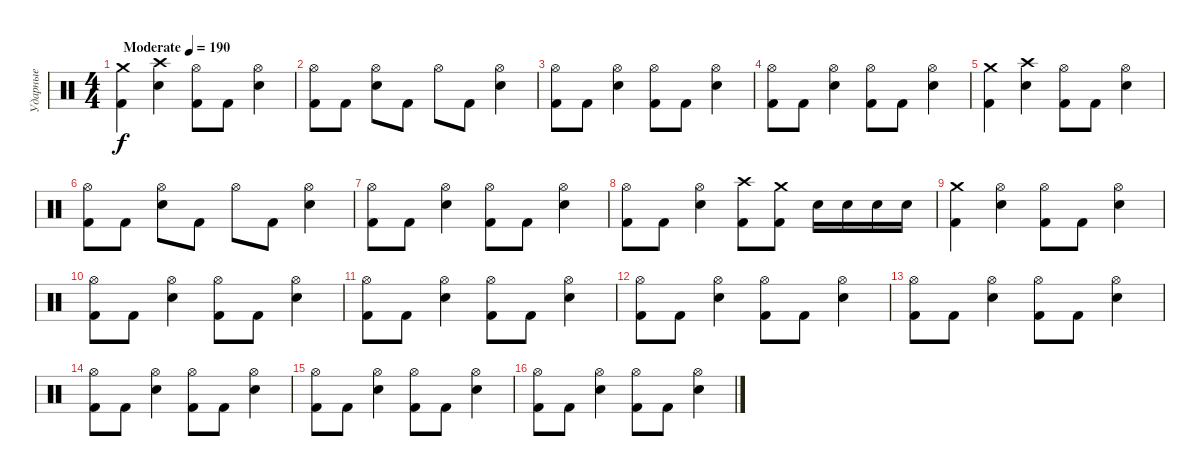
\track ("Ударные" "Ударные") {instrument percussion}
\staff {score}
\articulation defaults
\ts (4 4)
\tempo (190 "Moderate")
\clef neutral
\ks c
("Crash medium (hit)" "Kick (hit) 2").4{dy f} ("Crash high (hit)" "Snare (hit) 2").4 ("Hi-Hat (open)" "Kick (hit) 2").8 "Kick (hit) 2".8 ("Hi-Hat (open)" "Snare (hit) 2").4 |
("Hi-Hat (open)" "Kick (hit) 2").8 "Kick (hit) 2".8 ("Hi-Hat (open)" "Snare (hit) 2").8 "Kick (hit) 2".8 "Hi-Hat (open)".8 "Kick (hit) 2".8 ("Hi-Hat (open)" "Snare (hit) 2").4 |
("Hi-Hat (open)" "Kick (hit) 2").8 "Kick (hit) 2".8 ("Hi-Hat (open)" "Snare (hit) 2").4 ("Hi-Hat (open)" "Kick (hit) 2").8 "Kick (hit) 2".8 ("Hi-Hat (open)" "Snare (hit) 2").4 |
("Hi-Hat (open)" "Kick (hit) 2").8 "Kick (hit) 2".8 ("Hi-Hat (open)" "Snare (hit) 2").4 ("Hi-Hat (open)" "Kick (hit) 2").8 "Kick (hit) 2".8 ("Hi-Hat (open)" "Snare (hit) 2").4 |
("Crash medium (hit)" "Kick (hit) 2").4 ("Crash high (hit)" "Snare (hit) 2").4 ("Hi-Hat (open)" "Kick (hit) 2").8 "Kick (hit) 2".8 ("Hi-Hat (open)" "Snare (hit) 2").4 |
("Hi-Hat (open)" "Kick (hit) 2").8 "Kick (hit) 2".8 ("Hi-Hat (open)" "Snare (hit) 2").8 "Kick (hit) 2".8 "Hi-Hat (open)".8 "Kick (hit) 2".8 ("Hi-Hat (open)" "Snare (hit) 2").4 |
("Hi-Hat (open)" "Kick (hit) 2").8 "Kick (hit) 2".8 ("Hi-Hat (open)" "Snare (hit) 2").4 ("Hi-Hat (open)" "Kick (hit) 2").8 "Kick (hit) 2".8 ("Hi-Hat (open)" "Snare (hit) 2").4 |
("Hi-Hat (open)" "Kick (hit) 2").8 "Kick (hit) 2".8 ("Hi-Hat (open)" "Snare (hit) 2").4 ("Crash high (hit)" "Kick (hit) 2").8 ("Crash medium (hit)" "Kick (hit) 2").8 "Snare (hit) 2".16 "Snare (hit) 2".16 "Snare (hit) 2".16 "Snare (hit) 2".16 |
("Crash medium (hit)" "Kick (hit) 2").4 ("Hi-Hat (open)" "Snare (hit) 2").4 ("Hi-Hat (open)" "Kick (hit) 2").8 "Kick (hit) 2".8 ("Hi-Hat (open)" "Snare (hit) 2").4 |
("Hi-Hat (open)" "Kick (hit) 2").8 "Kick (hit) 2".8 ("Hi-Hat (open)" "Snare (hit) 2").4 ("Hi-Hat (open)" "Kick (hit) 2").8 "Kick (hit) 2".8 ("Hi-Hat (open)" "Snare (hit) 2").4 |
("Hi-Hat (open)" "Kick (hit) 2").8 "Kick (hit) 2".8 ("Hi-Hat (open)" "Snare (hit) 2").4 ("Hi-Hat (open)" "Kick (hit) 2").8 "Kick (hit) 2".8 ("Hi-Hat (open)" "Snare (hit) 2").4 |
("Hi-Hat (open)" "Kick (hit) 2").8 "Kick (hit) 2".8 ("Hi-Hat (open)" "Snare (hit) 2").4 ("Hi-Hat (open)" "Kick (hit) 2").8 "Kick (hit) 2".8 ("Hi-Hat (open)" "Snare (hit) 2").4 |
("Hi-Hat (open)" "Kick (hit) 2").8 "Kick (hit) 2".8 ("Hi-Hat (open)" "Snare (hit) 2").4 ("Hi-Hat (open)" "Kick (hit) 2").8 "Kick (hit) 2".8 ("Hi-Hat (open)" "Snare (hit) 2").4 |
("Hi-Hat (open)" "Kick (hit) 2").8 "Kick (hit) 2".8 ("Hi-Hat (open)" "Snare (hit) 2").4 ("Hi-Hat (open)" "Kick (hit) 2").8 "Kick (hit) 2".8 ("Hi-Hat (open)" "Snare (hit) 2").4 |
("Hi-Hat (open)" "Kick (hit) 2").8 "Kick (hit) 2".8 ("Hi-Hat (open)" "Snare (hit) 2").4 ("Hi-Hat (open)" "Kick (hit) 2").8 "Kick (hit) 2".8 ("Hi-Hat (open)" "Snare (hit) 2").4 |
("Hi-Hat (open)" "Kick (hit) 2").8 "Kick (hit) 2".8 ("Hi-Hat (open)" "Snare (hit) 2").4 ("Hi-Hat (open)" "Kick (hit) 2").8 "Kick (hit) 2".8 ("Hi-Hat (open)" "Snare (hit) 2").4
